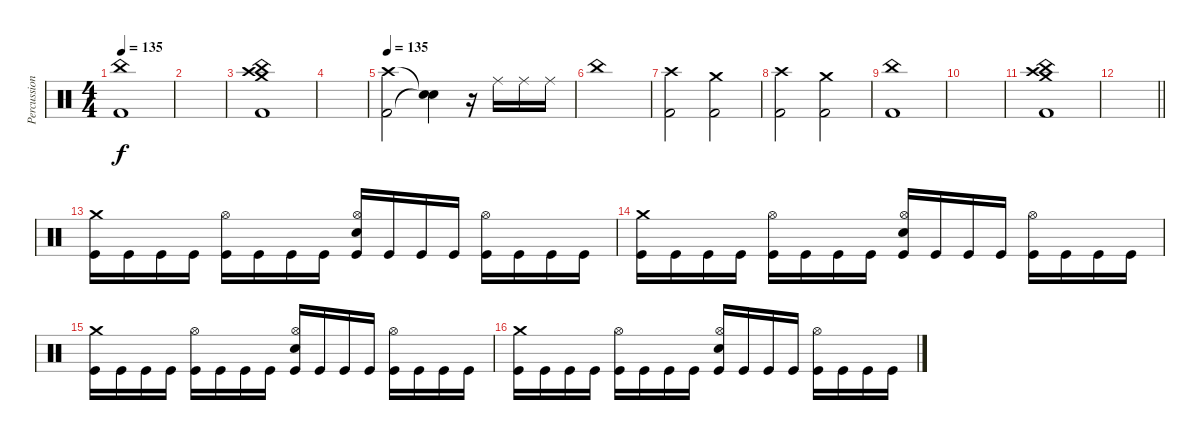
\track ("Percussion" "Percussion") {instrument percussion}
\staff {score}
\articulation defaults
\ts (4 4)
\tempo 135
\clef neutral
\ks c
("Kick (hit) 2" "China (hit)").1{dy f} |
|
("Crash medium (hit)" "Crash high (hit)" "China (hit)" "Kick (hit) 2").1 |
|
\tempo 135
("Crash high (hit)" "Kick (hit) 2").2 ("Snare (hit)"{t} "Snare (hit)"{t}).4 r.16 "Ride (middle)".16 "Ride (middle)".16 "Ride (middle)".16 |
"China (hit)".1 |
("Crash high (hit)" "Kick (hit) 2").2 ("Crash medium (hit)" "Kick (hit) 2").2 |
("Crash high (hit)" "Kick (hit) 2").2 ("Crash medium (hit)" "Kick (hit) 2").2 |
("Kick (hit) 2" "China (hit)").1 |
|
("Crash medium (hit)" "Crash high (hit)" "China (hit)" "Kick (hit) 2").1 |
\barLineRight lightlight
|
("Crash medium (hit)" "Kick (hit)").16 "Kick (hit)".16 "Kick (hit)".16 "Kick (hit)".16 ("Hi-Hat (open)" "Kick (hit)").16 "Kick (hit)".16 "Kick (hit)".16 "Kick (hit)".16 ("Hi-Hat (open)" "Electric Snare (hit)" "Kick (hit)").16 "Kick (hit)".16 "Kick (hit)".16 "Kick (hit)".16 ("Hi-Hat (open)" "Kick (hit)").16 "Kick (hit)".16 "Kick (hit)".16 "Kick (hit)".16 |
("Crash medium (hit)" "Kick (hit)").16 "Kick (hit)".16 "Kick (hit)".16 "Kick (hit)".16 ("Hi-Hat (open)" "Kick (hit)").16 "Kick (hit)".16 "Kick (hit)".16 "Kick (hit)".16 ("Hi-Hat (open)" "Electric Snare (hit)" "Kick (hit)").16 "Kick (hit)".16 "Kick (hit)".16 "Kick (hit)".16 ("Hi-Hat (open)" "Kick (hit)").16 "Kick (hit)".16 "Kick (hit)".16 "Kick (hit)".16 |
("Crash medium (hit)" "Kick (hit)").16 "Kick (hit)".16 "Kick (hit)".16 "Kick (hit)".16 ("Hi-Hat (open)" "Kick (hit)").16 "Kick (hit)".16 "Kick (hit)".16 "Kick (hit)".16 ("Hi-Hat (open)" "Electric Snare (hit)" "Kick (hit)").16 "Kick (hit)".16 "Kick (hit)".16 "Kick (hit)".16 ("Hi-Hat (open)" "Kick (hit)").16 "Kick (hit)".16 "Kick (hit)".16 "Kick (hit)".16 |
("Crash medium (hit)" "Kick (hit)").16 "Kick (hit)".16 "Kick (hit)".16 "Kick (hit)".16 ("Hi-Hat (open)" "Kick (hit)").16 "Kick (hit)".16 "Kick (hit)".16 "Kick (hit)".16 ("Hi-Hat (open)" "Electric Snare (hit)" "Kick (hit)").16 "Kick (hit)".16 "Kick (hit)".16 "Kick (hit)".16 ("Hi-Hat (open)" "Kick (hit)").16 "Kick (hit)".16 "Kick (hit)".16 "Kick (hit)".16
